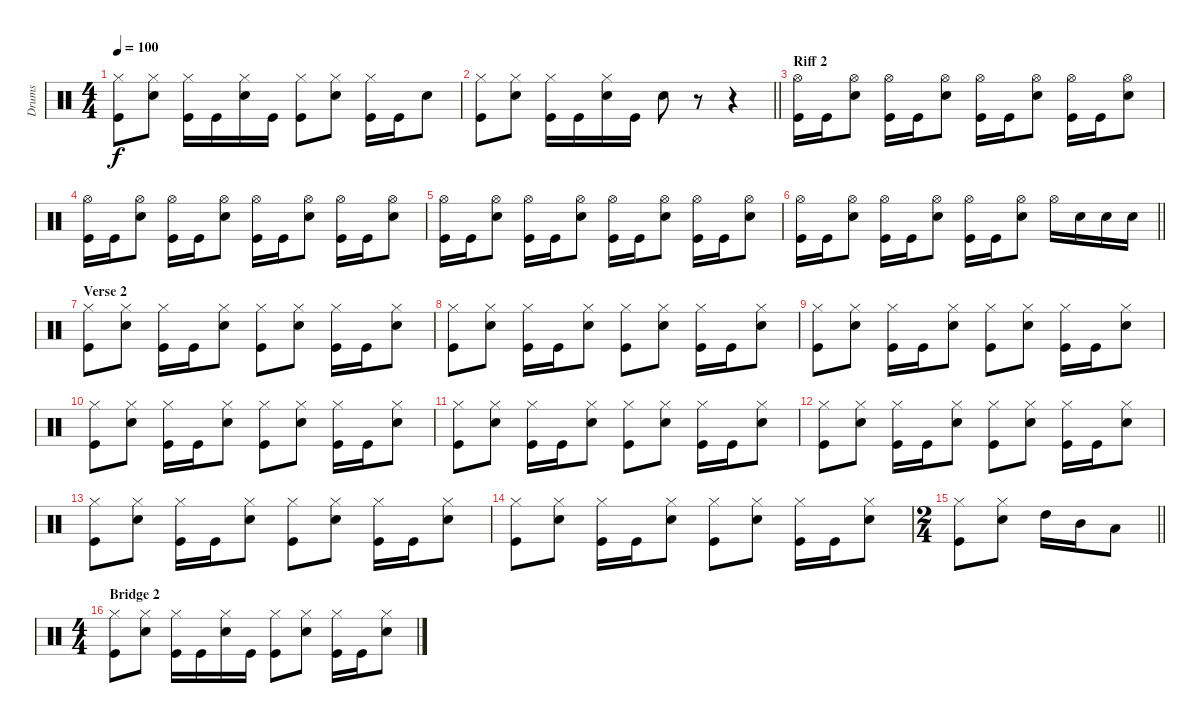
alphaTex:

\track ("Drums" "Drums") {instrument percussion}
\staff {score}
\articulation defaults
\ts (4 4)
\tempo 100
\clef neutral
\ks c
("Hi-Hat (closed)" "Kick (hit)").8{dy f} ("Hi-Hat (closed)" "Snare (hit) 2").8 ("Hi-Hat (closed)" "Kick (hit)").16 "Kick (hit)".16 ("Hi-Hat (closed)" "Snare (hit) 2").16 "Kick (hit)".16 ("Hi-Hat (closed)" "Kick (hit)").8 ("Hi-Hat (closed)" "Snare (hit) 2").8 ("Hi-Hat (closed)" "Kick (hit)").16 "Kick (hit)".16 "Snare (hit) 2".8 |
\barLineRight lightlight
("Hi-Hat (closed)" "Kick (hit)").8 ("Hi-Hat (closed)" "Snare (hit) 2").8 ("Hi-Hat (closed)" "Kick (hit)").16 "Kick (hit)".16 ("Hi-Hat (closed)" "Snare (hit) 2").16 "Kick (hit)".16 "Snare (hit) 2".8 r.8 r.4 |
\section ("" "Riff 2")
("Hi-Hat (open)" "Kick (hit)").16 "Kick (hit)".16 ("Hi-Hat (open)" "Snare (hit) 2").8 ("Hi-Hat (open)" "Kick (hit)").16 "Kick (hit)".16 ("Hi-Hat (open)" "Snare (hit) 2").8 ("Hi-Hat (open)" "Kick (hit)").16 "Kick (hit)".16 ("Hi-Hat (open)" "Snare (hit) 2").8 ("Hi-Hat (open)" "Kick (hit)").16 "Kick (hit)".16 ("Hi-Hat (open)" "Snare (hit) 2").8 |
("Hi-Hat (open)" "Kick (hit)").16 "Kick (hit)".16 ("Hi-Hat (open)" "Snare (hit) 2").8 ("Hi-Hat (open)" "Kick (hit)").16 "Kick (hit)".16 ("Hi-Hat (open)" "Snare (hit) 2").8 ("Hi-Hat (open)" "Kick (hit)").16 "Kick (hit)".16 ("Hi-Hat (open)" "Snare (hit) 2").8 ("Hi-Hat (open)" "Kick (hit)").16 "Kick (hit)".16 ("Hi-Hat (open)" "Snare (hit) 2").8 |
("Hi-Hat (open)" "Kick (hit)").16 "Kick (hit)".16 ("Hi-Hat (open)" "Snare (hit) 2").8 ("Hi-Hat (open)" "Kick (hit)").16 "Kick (hit)".16 ("Hi-Hat (open)" "Snare (hit) 2").8 ("Hi-Hat (open)" "Kick (hit)").16 "Kick (hit)".16 ("Hi-Hat (open)" "Snare (hit) 2").8 ("Hi-Hat (open)" "Kick (hit)").16 "Kick (hit)".16 ("Hi-Hat (open)" "Snare (hit) 2").8 |
\barLineRight lightlight
("Hi-Hat (open)" "Kick (hit)").16 "Kick (hit)".16 ("Hi-Hat (open)" "Snare (hit) 2").8 ("Hi-Hat (open)" "Kick (hit)").16 "Kick (hit)".16 ("Hi-Hat (open)" "Snare (hit) 2").8 ("Hi-Hat (open)" "Kick (hit)").16 "Kick (hit)".16 ("Hi-Hat (open)" "Snare (hit) 2").8 "Hi-Hat (open)".16 "Snare (hit) 2".16 "Snare (hit) 2".16 "Snare (hit) 2".16 |
\section ("" "Verse 2")
("Hi-Hat (closed)" "Kick (hit)").8 ("Hi-Hat (closed)" "Snare (hit) 2").8 ("Hi-Hat (closed)" "Kick (hit)").16 "Kick (hit)".16 ("Hi-Hat (closed)" "Snare (hit) 2").8 ("Hi-Hat (closed)" "Kick (hit)").8 ("Hi-Hat (closed)" "Snare (hit) 2").8 ("Hi-Hat (closed)" "Kick (hit)").16 "Kick (hit)".16 ("Hi-Hat (closed)" "Snare (hit) 2").8 |
("Hi-Hat (closed)" "Kick (hit)").8 ("Hi-Hat (closed)" "Snare (hit) 2").8 ("Hi-Hat (closed)" "Kick (hit)").16 "Kick (hit)".16 ("Hi-Hat (closed)" "Snare (hit) 2").8 ("Hi-Hat (closed)" "Kick (hit)").8 ("Hi-Hat (closed)" "Snare (hit) 2").8 ("Hi-Hat (closed)" "Kick (hit)").16 "Kick (hit)".16 ("Hi-Hat (closed)" "Snare (hit) 2").8 |
("Hi-Hat (closed)" "Kick (hit)").8 ("Hi-Hat (closed)" "Snare (hit) 2").8 ("Hi-Hat (closed)" "Kick (hit)").16 "Kick (hit)".16 ("Hi-Hat (closed)" "Snare (hit) 2").8 ("Hi-Hat (closed)" "Kick (hit)").8 ("Hi-Hat (closed)" "Snare (hit) 2").8 ("Hi-Hat (closed)" "Kick (hit)").16 "Kick (hit)".16 ("Hi-Hat (closed)" "Snare (hit) 2").8 |
("Hi-Hat (closed)" "Kick (hit)").8 ("Hi-Hat (closed)" "Snare (hit) 2").8 ("Hi-Hat (closed)" "Kick (hit)").16 "Kick (hit)".16 ("Hi-Hat (closed)" "Snare (hit) 2").8 ("Hi-Hat (closed)" "Kick (hit)").8 ("Hi-Hat (closed)" "Snare (hit) 2").8 ("Hi-Hat (closed)" "Kick (hit)").16 "Kick (hit)".16 ("Hi-Hat (closed)" "Snare (hit) 2").8 |
("Hi-Hat (closed)" "Kick (hit)").8 ("Hi-Hat (closed)" "Snare (hit) 2").8 ("Hi-Hat (closed)" "Kick (hit)").16 "Kick (hit)".16 ("Hi-Hat (closed)" "Snare (hit) 2").8 ("Hi-Hat (closed)" "Kick (hit)").8 ("Hi-Hat (closed)" "Snare (hit) 2").8 ("Hi-Hat (closed)" "Kick (hit)").16 "Kick (hit)".16 ("Hi-Hat (closed)" "Snare (hit) 2").8 |
("Hi-Hat (closed)" "Kick (hit)").8 ("Hi-Hat (closed)" "Snare (hit) 2").8 ("Hi-Hat (closed)" "Kick (hit)").16 "Kick (hit)".16 ("Hi-Hat (closed)" "Snare (hit) 2").8 ("Hi-Hat (closed)" "Kick (hit)").8 ("Hi-Hat (closed)" "Snare (hit) 2").8 ("Hi-Hat (closed)" "Kick (hit)").16 "Kick (hit)".16 ("Hi-Hat (closed)" "Snare (hit) 2").8 |
("Hi-Hat (closed)" "Kick (hit)").8 ("Hi-Hat (closed)" "Snare (hit) 2").8 ("Hi-Hat (closed)" "Kick (hit)").16 "Kick (hit)".16 ("Hi-Hat (closed)" "Snare (hit) 2").8 ("Hi-Hat (closed)" "Kick (hit)").8 ("Hi-Hat (closed)" "Snare (hit) 2").8 ("Hi-Hat (closed)" "Kick (hit)").16 "Kick (hit)".16 ("Hi-Hat (closed)" "Snare (hit) 2").8 |
("Hi-Hat (closed)" "Kick (hit)").8 ("Hi-Hat (closed)" "Snare (hit) 2").8 ("Hi-Hat (closed)" "Kick (hit)").16 "Kick (hit)".16 ("Hi-Hat (closed)" "Snare (hit) 2").8 ("Hi-Hat (closed)" "Kick (hit)").8 ("Hi-Hat (closed)" "Snare (hit) 2").8 ("Hi-Hat (closed)" "Kick (hit)").16 "Kick (hit)".16 ("Hi-Hat (closed)" "Snare (hit) 2").8 |
\ts (2 4)
\barLineRight lightlight
("Hi-Hat (closed)" "Kick (hit)").8 ("Hi-Hat (closed)" "Snare (hit) 2").8 "High Tom (hit)".16 "Mid Tom (hit)".16 "Low Tom (hit)".8 |
\ts (4 4)
\section ("" "Bridge 2")
("Hi-Hat (closed)" "Kick (hit)").8 ("Hi-Hat (closed)" "Snare (hit) 2").8 ("Hi-Hat (closed)" "Kick (hit)").16 "Kick (hit)".16 ("Hi-Hat (closed)" "Snare (hit) 2").16 "Kick (hit)".16 ("Hi-Hat (closed)" "Kick (hit)").8 ("Hi-Hat (closed)" "Snare (hit) 2").8 ("Hi-Hat (closed)" "Kick (hit)").16 "Kick (hit)".16 ("Hi-Hat (closed)" "Snare (hit) 2").8
